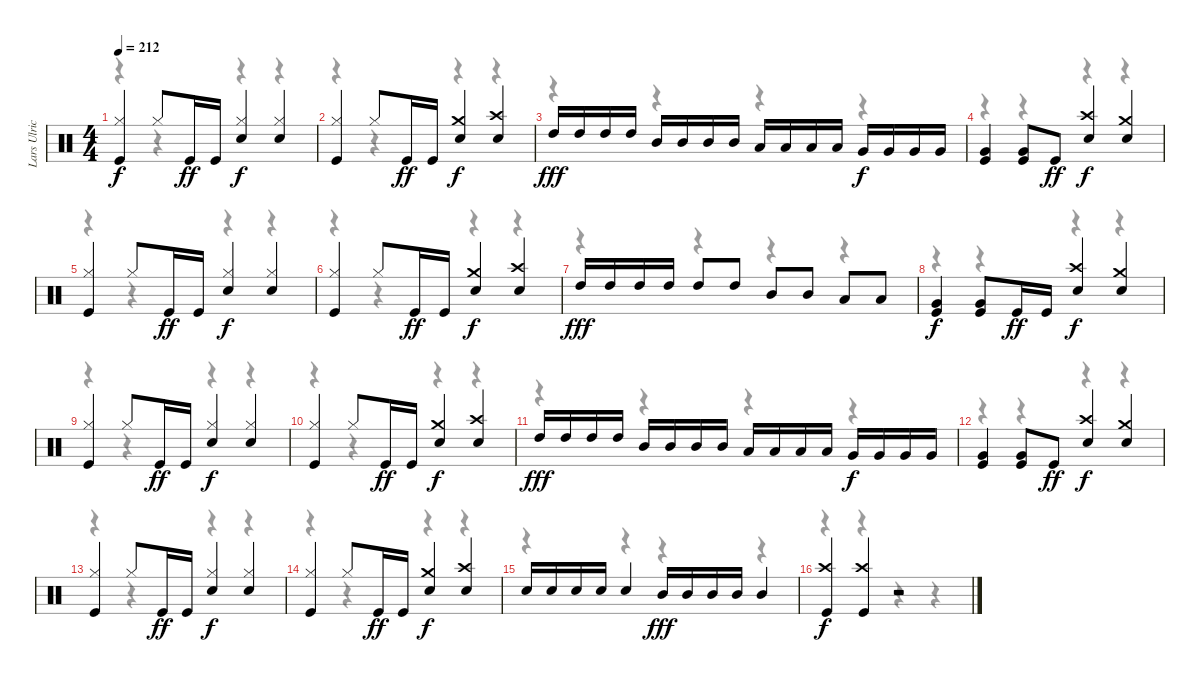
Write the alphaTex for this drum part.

\track ("Lars Ulrich" "Lars Ulric") {instrument percussion}
\staff {score}
\articulation defaults
\voice
\ts (4 4)
\tempo 212
\clef neutral
\ks c
("Hi-Hat (closed)" "Kick (hit)").4{dy f} "Hi-Hat (closed)".8 "Kick (hit)".16{dy ff} "Kick (hit)".16 ("Hi-Hat (closed)" "Snare (hit) 2").4{dy f} ("Hi-Hat (closed)" "Snare (hit) 2").4 |
("Hi-Hat (closed)" "Kick (hit)").4 "Hi-Hat (closed)".8 "Kick (hit)".16{dy ff} "Kick (hit)".16 ("Crash medium (hit)" "Snare (hit) 2").4{dy f} ("Crash high (hit)" "Snare (hit) 2").4 |
"High Tom (hit)".16{dy fff} "High Tom (hit)".16 "High Tom (hit)".16 "High Tom (hit)".16 "Mid Tom (hit)".16 "Mid Tom (hit)".16 "Mid Tom (hit)".16 "Mid Tom (hit)".16 "Low Tom (hit)".16 "Low Tom (hit)".16 "Low Tom (hit)".16 "Low Tom (hit)".16 "Very Low Tom (hit)".16{dy f} "Very Low Tom (hit)".16 "Very Low Tom (hit)".16 "Very Low Tom (hit)".16 |
("Very Low Tom (hit)" "Kick (hit)").4 ("Very Low Tom (hit)" "Kick (hit)").8 "Kick (hit)".8{dy ff} ("Crash high (hit)" "Snare (hit) 2").4{dy f} ("Crash medium (hit)" "Snare (hit) 2").4 |
("Hi-Hat (closed)" "Kick (hit)").4 "Hi-Hat (closed)".8 "Kick (hit)".16{dy ff} "Kick (hit)".16 ("Hi-Hat (closed)" "Snare (hit) 2").4{dy f} ("Hi-Hat (closed)" "Snare (hit) 2").4 |
("Hi-Hat (closed)" "Kick (hit)").4 "Hi-Hat (closed)".8 "Kick (hit)".16{dy ff} "Kick (hit)".16 ("Crash medium (hit)" "Snare (hit) 2").4{dy f} ("Crash high (hit)" "Snare (hit) 2").4 |
"High Tom (hit)".16{dy fff} "High Tom (hit)".16 "High Tom (hit)".16 "High Tom (hit)".16 "High Tom (hit)".8 "High Tom (hit)".8 "Mid Tom (hit)".8 "Mid Tom (hit)".8 "Low Tom (hit)".8 "Low Tom (hit)".8 |
("Very Low Tom (hit)" "Kick (hit)").4{dy f} ("Very Low Tom (hit)" "Kick (hit)").8 "Kick (hit)".16{dy ff} "Kick (hit)".16 ("Crash high (hit)" "Snare (hit) 2").4{dy f} ("Crash medium (hit)" "Snare (hit) 2").4 |
("Hi-Hat (closed)" "Kick (hit)").4 "Hi-Hat (closed)".8 "Kick (hit)".16{dy ff} "Kick (hit)".16 ("Hi-Hat (closed)" "Snare (hit) 2").4{dy f} ("Hi-Hat (closed)" "Snare (hit) 2").4 |
("Hi-Hat (closed)" "Kick (hit)").4 "Hi-Hat (closed)".8 "Kick (hit)".16{dy ff} "Kick (hit)".16 ("Crash medium (hit)" "Snare (hit) 2").4{dy f} ("Crash high (hit)" "Snare (hit) 2").4 |
"High Tom (hit)".16{dy fff} "High Tom (hit)".16 "High Tom (hit)".16 "High Tom (hit)".16 "Mid Tom (hit)".16 "Mid Tom (hit)".16 "Mid Tom (hit)".16 "Mid Tom (hit)".16 "Low Tom (hit)".16 "Low Tom (hit)".16 "Low Tom (hit)".16 "Low Tom (hit)".16 "Very Low Tom (hit)".16{dy f} "Very Low Tom (hit)".16 "Very Low Tom (hit)".16 "Very Low Tom (hit)".16 |
("Very Low Tom (hit)" "Kick (hit)").4 ("Very Low Tom (hit)" "Kick (hit)").8 "Kick (hit)".8{dy ff} ("Crash high (hit)" "Snare (hit) 2").4{dy f} ("Crash medium (hit)" "Snare (hit) 2").4 |
("Hi-Hat (closed)" "Kick (hit)").4 "Hi-Hat (closed)".8 "Kick (hit)".16{dy ff} "Kick (hit)".16 ("Hi-Hat (closed)" "Snare (hit) 2").4{dy f} ("Hi-Hat (closed)" "Snare (hit) 2").4 |
("Hi-Hat (closed)" "Kick (hit)").4 "Hi-Hat (closed)".8 "Kick (hit)".16{dy ff} "Kick (hit)".16 ("Crash medium (hit)" "Snare (hit) 2").4{dy f} ("Crash high (hit)" "Snare (hit) 2").4 |
"Snare (hit) 2".16 "Snare (hit) 2".16 "Snare (hit) 2".16 "Snare (hit) 2".16 "Snare (hit) 2".4 "Mid Tom (hit)".16{dy fff} "Mid Tom (hit)".16 "Mid Tom (hit)".16 "Mid Tom (hit)".16 "Mid Tom (hit)".4 |
("Crash high (hit)" "Kick (hit)").4{dy f} ("Crash high (hit)" "Kick (hit)").4 r.2
\voice
\clef neutral
\ottava regular
\simile none
\ks c
r.4{dy f} r.4 r.4 r.4 |
r.4 r.4 r.4 r.4 |
r.4 r.4 r.4 r.4 |
r.4 r.4 r.4 r.4 |
r.4 r.4 r.4 r.4 |
r.4 r.4 r.4 r.4 |
r.4 r.4 r.4 r.4 |
r.4 r.4 r.4 r.4 |
r.4 r.4 r.4 r.4 |
r.4 r.4 r.4 r.4 |
r.4 r.4 r.4 r.4 |
r.4 r.4 r.4 r.4 |
r.4 r.4 r.4 r.4 |
r.4 r.4 r.4 r.4 |
r.4 r.4 r.4 r.4 |
r.4 r.4 r.4 r.4
